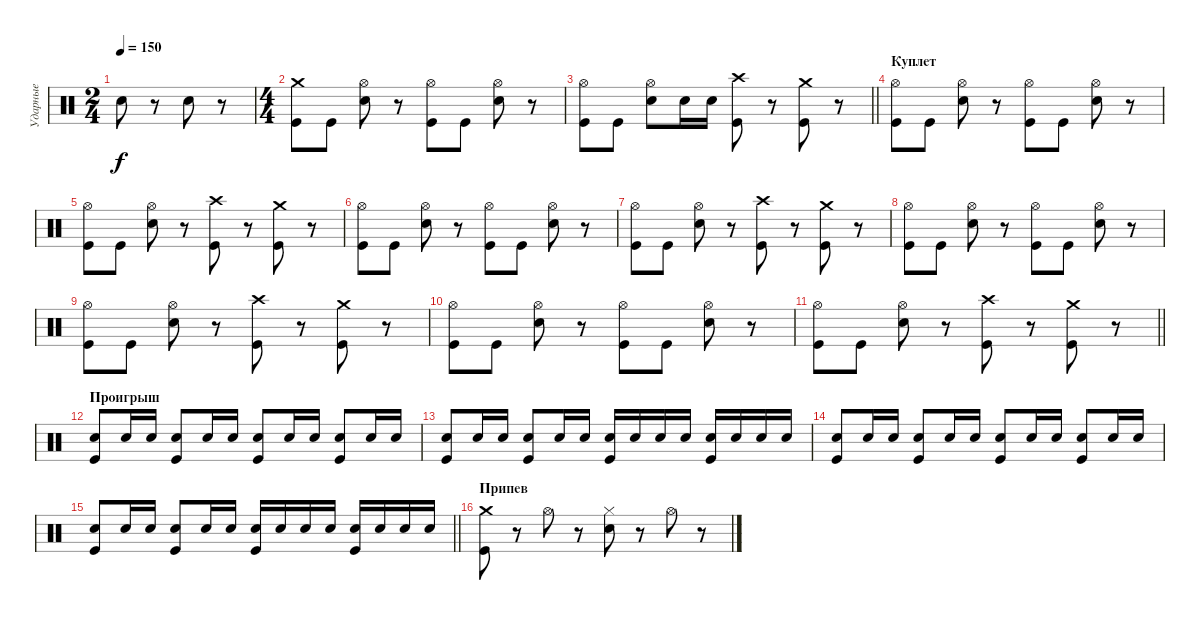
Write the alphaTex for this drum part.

\track ("Ударные" "Ударные") {instrument percussion}
\staff {score}
\articulation defaults
\ts (2 4)
\section ("" " ")
\tempo 150
\clef neutral
\ks c "Electric Snare (hit)".8{dy f}
r.8 "Electric Snare (hit)".8 r.8 |
\ts (4 4)
("Crash medium (hit)" "Kick (hit)").8 "Kick (hit)".8 ("Hi-Hat (open)" "Electric Snare (hit)").8 r.8 ("Hi-Hat (open)" "Kick (hit)").8 "Kick (hit)".8 ("Hi-Hat (open)" "Electric Snare (hit)").8 r.8 |
\barLineRight lightlight
("Hi-Hat (open)" "Kick (hit)").8 "Kick (hit)".8 ("Hi-Hat (open)" "Electric Snare (hit)").8 "Electric Snare (hit)".16 "Electric Snare (hit)".16 ("Crash high (hit)" "Kick (hit)").8 r.8 ("Crash medium (hit)" "Kick (hit)").8 r.8 |
\section ("" "Куплет")
("Hi-Hat (open)" "Kick (hit)").8 "Kick (hit)".8 ("Hi-Hat (open)" "Electric Snare (hit)").8 r.8 ("Hi-Hat (open)" "Kick (hit)").8 "Kick (hit)".8 ("Hi-Hat (open)" "Electric Snare (hit)").8 r.8 |
("Hi-Hat (open)" "Kick (hit)").8 "Kick (hit)".8 ("Hi-Hat (open)" "Electric Snare (hit)").8 r.8 ("Crash high (hit)" "Kick (hit)").8 r.8 ("Crash medium (hit)" "Kick (hit)").8 r.8 |
("Hi-Hat (open)" "Kick (hit)").8 "Kick (hit)".8 ("Hi-Hat (open)" "Electric Snare (hit)").8 r.8 ("Hi-Hat (open)" "Kick (hit)").8 "Kick (hit)".8 ("Hi-Hat (open)" "Electric Snare (hit)").8 r.8 |
("Hi-Hat (open)" "Kick (hit)").8 "Kick (hit)".8 ("Hi-Hat (open)" "Electric Snare (hit)").8 r.8 ("Crash high (hit)" "Kick (hit)").8 r.8 ("Crash medium (hit)" "Kick (hit)").8 r.8 |
("Hi-Hat (open)" "Kick (hit)").8 "Kick (hit)".8 ("Hi-Hat (open)" "Electric Snare (hit)").8 r.8 ("Hi-Hat (open)" "Kick (hit)").8 "Kick (hit)".8 ("Hi-Hat (open)" "Electric Snare (hit)").8 r.8 |
("Hi-Hat (open)" "Kick (hit)").8 "Kick (hit)".8 ("Hi-Hat (open)" "Electric Snare (hit)").8 r.8 ("Crash high (hit)" "Kick (hit)").8 r.8 ("Crash medium (hit)" "Kick (hit)").8 r.8 |
("Hi-Hat (open)" "Kick (hit)").8 "Kick (hit)".8 ("Hi-Hat (open)" "Electric Snare (hit)").8 r.8 ("Hi-Hat (open)" "Kick (hit)").8 "Kick (hit)".8 ("Hi-Hat (open)" "Electric Snare (hit)").8 r.8 |
\barLineRight lightlight
("Hi-Hat (open)" "Kick (hit)").8 "Kick (hit)".8 ("Hi-Hat (open)" "Electric Snare (hit)").8 r.8 ("Crash high (hit)" "Kick (hit)").8 r.8 ("Crash medium (hit)" "Kick (hit)").8 r.8 |
\section ("" "Проигрыш")
("Electric Snare (hit)" "Kick (hit)").8 "Electric Snare (hit)".16 "Electric Snare (hit)".16 ("Electric Snare (hit)" "Kick (hit)").8 "Electric Snare (hit)".16 "Electric Snare (hit)".16 ("Electric Snare (hit)" "Kick (hit)").8 "Electric Snare (hit)".16 "Electric Snare (hit)".16 ("Electric Snare (hit)" "Kick (hit)").8 "Electric Snare (hit)".16 "Electric Snare (hit)".16 |
("Electric Snare (hit)" "Kick (hit)").8 "Electric Snare (hit)".16 "Electric Snare (hit)".16 ("Electric Snare (hit)" "Kick (hit)").8 "Electric Snare (hit)".16 "Electric Snare (hit)".16 ("Electric Snare (hit)" "Kick (hit)").16 "Electric Snare (hit)".16 "Electric Snare (hit)".16 "Electric Snare (hit)".16 ("Electric Snare (hit)" "Kick (hit)").16 "Electric Snare (hit)".16 "Electric Snare (hit)".16 "Electric Snare (hit)".16 |
("Electric Snare (hit)" "Kick (hit)").8 "Electric Snare (hit)".16 "Electric Snare (hit)".16 ("Electric Snare (hit)" "Kick (hit)").8 "Electric Snare (hit)".16 "Electric Snare (hit)".16 ("Electric Snare (hit)" "Kick (hit)").8 "Electric Snare (hit)".16 "Electric Snare (hit)".16 ("Electric Snare (hit)" "Kick (hit)").8 "Electric Snare (hit)".16 "Electric Snare (hit)".16 |
\barLineRight lightlight
("Electric Snare (hit)" "Kick (hit)").8 "Electric Snare (hit)".16 "Electric Snare (hit)".16 ("Electric Snare (hit)" "Kick (hit)").8 "Electric Snare (hit)".16 "Electric Snare (hit)".16 ("Electric Snare (hit)" "Kick (hit)").16 "Electric Snare (hit)".16 "Electric Snare (hit)".16 "Electric Snare (hit)".16 ("Electric Snare (hit)" "Kick (hit)").16 "Electric Snare (hit)".16 "Electric Snare (hit)".16 "Electric Snare (hit)".16 |
\section ("" "Припев")
("Crash medium (hit)" "Kick (hit)").8 r.8 "Hi-Hat (open)".8 r.8 ("Hi-Hat (closed)" "Electric Snare (hit)").8 r.8 "Hi-Hat (open)".8 r.8
